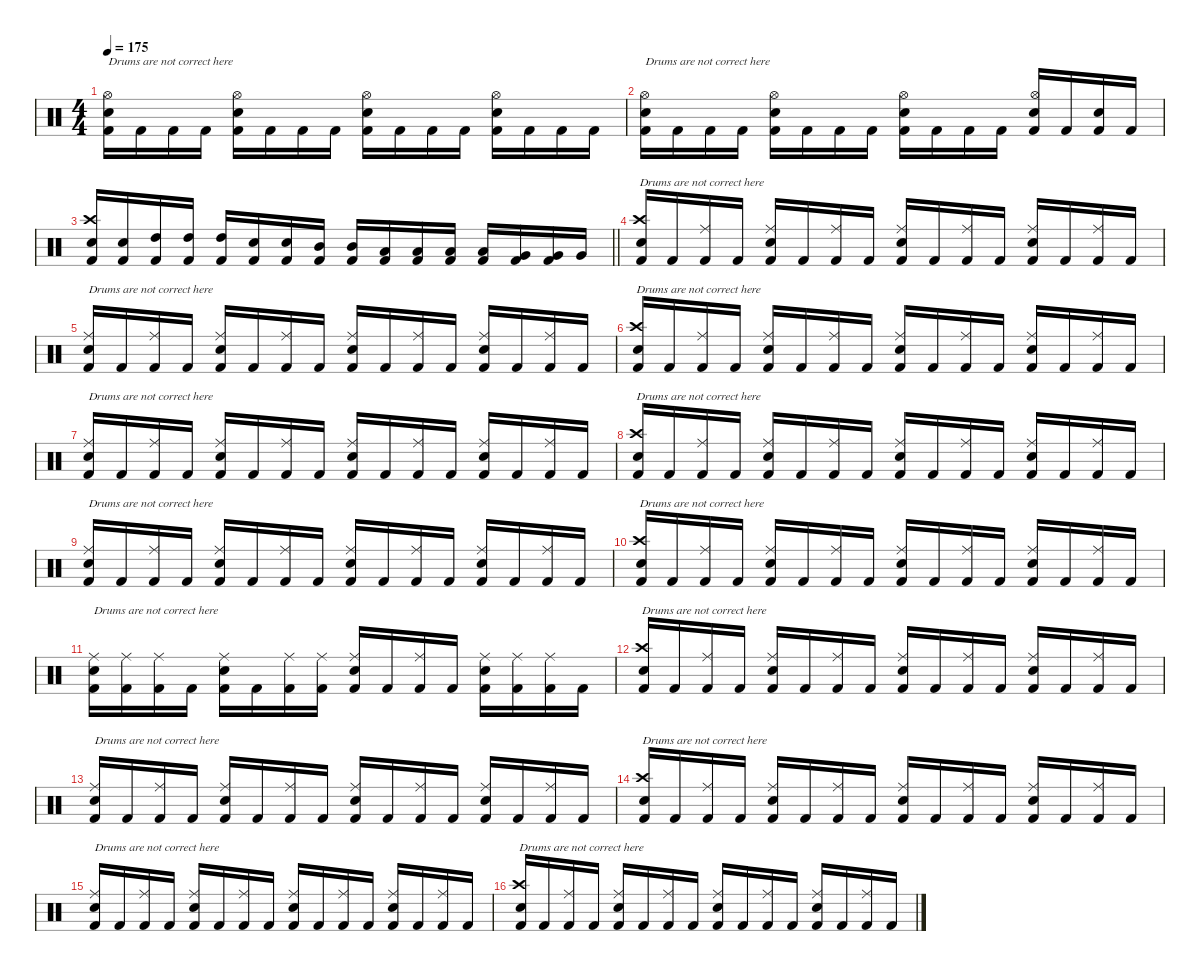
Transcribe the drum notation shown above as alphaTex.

\defaultSystemsLayout 4
\hideDynamics
\bracketExtendMode nobrackets
\singleTrackTrackNamePolicy hidden
\multiTrackTrackNamePolicy hidden
\firstSystemTrackNameMode fullname
\firstSystemTrackNameOrientation horizontal
\otherSystemsTrackNameOrientation horizontal
\track ("Fredrik Andersson" "drm.") {instrument percussion}
\staff {score}
\articulation defaults
\ts (4 4)
\tempo 175
\clef neutral
\ks c
("Hi-Hat (open)" "Snare (hit) 2" "Kick (hit) 2").16{txt "Drums are not correct here" dy f beam Down} "Kick (hit) 2".16{beam Down} "Kick (hit) 2".16{beam Down} "Kick (hit) 2".16{beam Down} ("Hi-Hat (open)" "Snare (hit) 2" "Kick (hit) 2").16{beam Down} "Kick (hit) 2".16{beam Down} "Kick (hit) 2".16{beam Down} "Kick (hit) 2".16{beam Down} ("Hi-Hat (open)" "Snare (hit) 2" "Kick (hit) 2").16{beam Down} "Kick (hit) 2".16{beam Down} "Kick (hit) 2".16{beam Down} "Kick (hit) 2".16{beam Down} ("Hi-Hat (open)" "Snare (hit) 2" "Kick (hit) 2").16{beam Down} "Kick (hit) 2".16{beam Down} "Kick (hit) 2".16{beam Down} "Kick (hit) 2".16{beam Down} |
("Hi-Hat (open)" "Snare (hit) 2" "Kick (hit) 2").16{txt "Drums are not correct here" beam Down} "Kick (hit) 2".16{beam Down} "Kick (hit) 2".16{beam Down} "Kick (hit) 2".16{beam Down} ("Hi-Hat (open)" "Snare (hit) 2" "Kick (hit) 2").16{beam Down} "Kick (hit) 2".16{beam Down} "Kick (hit) 2".16{beam Down} "Kick (hit) 2".16{beam Down} ("Hi-Hat (open)" "Snare (hit) 2" "Kick (hit) 2").16{beam Down} "Kick (hit) 2".16{beam Down} "Kick (hit) 2".16{beam Down} "Kick (hit) 2".16{beam Down} ("Hi-Hat (open)" "Snare (hit) 2" "Kick (hit) 2").16{beam Up} "Kick (hit) 2".16{beam Up} ("Snare (hit) 2" "Kick (hit) 2").16{beam Up} "Kick (hit) 2".16{beam Up} |
\barLineRight lightlight
("Crash high (hit)" "Snare (hit) 2" "Kick (hit) 2").16{beam Up} ("Snare (hit) 2" "Kick (hit) 2").16{beam Up} ("High Tom (hit)" "Kick (hit) 2").16{beam Up} ("High Tom (hit)" "Kick (hit) 2").16{beam Up} ("High Tom (hit)" "Kick (hit) 2").16{beam Up} ("Snare (hit) 2" "Kick (hit) 2").16{beam Up} ("Snare (hit) 2" "Kick (hit) 2").16{beam Up} ("Mid Tom (hit)" "Kick (hit) 2").16{beam Up} ("Mid Tom (hit)" "Kick (hit) 2").16{beam Up} ("Low Tom (hit)" "Kick (hit) 2").16{beam Up} ("Low Tom (hit)" "Kick (hit) 2").16{beam Up} ("Low Tom (hit)" "Kick (hit) 2").16{beam Up} ("Low Tom (hit)" "Kick (hit) 2").16{beam Up} ("Very Low Tom (hit)" "Kick (hit) 2").16{beam Up} ("Very Low Tom (hit)" "Kick (hit) 2").16{beam Up} "Very Low Tom (hit)".16{beam Up} |
("Crash high (hit)" "Snare (hit) 2" "Kick (hit) 2").16{txt "Drums are not correct here" beam Up} "Kick (hit) 2".16{beam Up} ("Ride (middle)" "Kick (hit) 2").16{beam Up} "Kick (hit) 2".16{beam Up} ("Ride (middle)" "Snare (hit) 2" "Kick (hit) 2").16{beam Up} "Kick (hit) 2".16{beam Up} ("Ride (middle)" "Kick (hit) 2").16{beam Up} "Kick (hit) 2".16{beam Up} ("Ride (middle)" "Snare (hit) 2" "Kick (hit) 2").16{beam Up} "Kick (hit) 2".16{beam Up} ("Ride (middle)" "Kick (hit) 2").16{beam Up} "Kick (hit) 2".16{beam Up} ("Ride (middle)" "Snare (hit) 2" "Kick (hit) 2").16{beam Up} "Kick (hit) 2".16{beam Up} ("Ride (middle)" "Kick (hit) 2").16{beam Up} "Kick (hit) 2".16{beam Up} |
("Ride (middle)" "Snare (hit) 2" "Kick (hit) 2").16{txt "Drums are not correct here" beam Up} "Kick (hit) 2".16{beam Up} ("Ride (middle)" "Kick (hit) 2").16{beam Up} "Kick (hit) 2".16{beam Up} ("Ride (middle)" "Snare (hit) 2" "Kick (hit) 2").16{beam Up} "Kick (hit) 2".16{beam Up} ("Ride (middle)" "Kick (hit) 2").16{beam Up} "Kick (hit) 2".16{beam Up} ("Ride (middle)" "Snare (hit) 2" "Kick (hit) 2").16{beam Up} "Kick (hit) 2".16{beam Up} ("Ride (middle)" "Kick (hit) 2").16{beam Up} "Kick (hit) 2".16{beam Up} ("Ride (middle)" "Snare (hit) 2" "Kick (hit) 2").16{beam Up} "Kick (hit) 2".16{beam Up} ("Ride (middle)" "Kick (hit) 2").16{beam Up} "Kick (hit) 2".16{beam Up} |
("Crash high (hit)" "Snare (hit) 2" "Kick (hit) 2").16{txt "Drums are not correct here" beam Up} "Kick (hit) 2".16{beam Up} ("Ride (middle)" "Kick (hit) 2").16{beam Up} "Kick (hit) 2".16{beam Up} ("Ride (middle)" "Snare (hit) 2" "Kick (hit) 2").16{beam Up} "Kick (hit) 2".16{beam Up} ("Ride (middle)" "Kick (hit) 2").16{beam Up} "Kick (hit) 2".16{beam Up} ("Ride (middle)" "Snare (hit) 2" "Kick (hit) 2").16{beam Up} "Kick (hit) 2".16{beam Up} ("Ride (middle)" "Kick (hit) 2").16{beam Up} "Kick (hit) 2".16{beam Up} ("Ride (middle)" "Snare (hit) 2" "Kick (hit) 2").16{beam Up} "Kick (hit) 2".16{beam Up} ("Ride (middle)" "Kick (hit) 2").16{beam Up} "Kick (hit) 2".16{beam Up} |
("Ride (middle)" "Snare (hit) 2" "Kick (hit) 2").16{txt "Drums are not correct here" beam Up} "Kick (hit) 2".16{beam Up} ("Ride (middle)" "Kick (hit) 2").16{beam Up} "Kick (hit) 2".16{beam Up} ("Ride (middle)" "Snare (hit) 2" "Kick (hit) 2").16{beam Up} "Kick (hit) 2".16{beam Up} ("Ride (middle)" "Kick (hit) 2").16{beam Up} "Kick (hit) 2".16{beam Up} ("Ride (middle)" "Snare (hit) 2" "Kick (hit) 2").16{beam Up} "Kick (hit) 2".16{beam Up} ("Ride (middle)" "Kick (hit) 2").16{beam Up} "Kick (hit) 2".16{beam Up} ("Ride (middle)" "Snare (hit) 2" "Kick (hit) 2").16{beam Up} "Kick (hit) 2".16{beam Up} ("Ride (middle)" "Kick (hit) 2").16{beam Up} "Kick (hit) 2".16{beam Up} |
("Crash high (hit)" "Snare (hit) 2" "Kick (hit) 2").16{txt "Drums are not correct here" beam Up} "Kick (hit) 2".16{beam Up} ("Ride (middle)" "Kick (hit) 2").16{beam Up} "Kick (hit) 2".16{beam Up} ("Ride (middle)" "Snare (hit) 2" "Kick (hit) 2").16{beam Up} "Kick (hit) 2".16{beam Up} ("Ride (middle)" "Kick (hit) 2").16{beam Up} "Kick (hit) 2".16{beam Up} ("Ride (middle)" "Snare (hit) 2" "Kick (hit) 2").16{beam Up} "Kick (hit) 2".16{beam Up} ("Ride (middle)" "Kick (hit) 2").16{beam Up} "Kick (hit) 2".16{beam Up} ("Ride (middle)" "Snare (hit) 2" "Kick (hit) 2").16{beam Up} "Kick (hit) 2".16{beam Up} ("Ride (middle)" "Kick (hit) 2").16{beam Up} "Kick (hit) 2".16{beam Up} |
("Ride (middle)" "Snare (hit) 2" "Kick (hit) 2").16{txt "Drums are not correct here" beam Up} "Kick (hit) 2".16{beam Up} ("Ride (middle)" "Kick (hit) 2").16{beam Up} "Kick (hit) 2".16{beam Up} ("Ride (middle)" "Snare (hit) 2" "Kick (hit) 2").16{beam Up} "Kick (hit) 2".16{beam Up} ("Ride (middle)" "Kick (hit) 2").16{beam Up} "Kick (hit) 2".16{beam Up} ("Ride (middle)" "Snare (hit) 2" "Kick (hit) 2").16{beam Up} "Kick (hit) 2".16{beam Up} ("Ride (middle)" "Kick (hit) 2").16{beam Up} "Kick (hit) 2".16{beam Up} ("Ride (middle)" "Snare (hit) 2" "Kick (hit) 2").16{beam Up} "Kick (hit) 2".16{beam Up} ("Ride (middle)" "Kick (hit) 2").16{beam Up} "Kick (hit) 2".16{beam Up} |
("Crash high (hit)" "Snare (hit) 2" "Kick (hit) 2").16{txt "Drums are not correct here" beam Up} "Kick (hit) 2".16{beam Up} ("Ride (middle)" "Kick (hit) 2").16{beam Up} "Kick (hit) 2".16{beam Up} ("Ride (middle)" "Snare (hit) 2" "Kick (hit) 2").16{beam Up} "Kick (hit) 2".16{beam Up} ("Ride (middle)" "Kick (hit) 2").16{beam Up} "Kick (hit) 2".16{beam Up} ("Ride (middle)" "Snare (hit) 2" "Kick (hit) 2").16{beam Up} "Kick (hit) 2".16{beam Up} ("Ride (middle)" "Kick (hit) 2").16{beam Up} "Kick (hit) 2".16{beam Up} ("Ride (middle)" "Snare (hit) 2" "Kick (hit) 2").16{beam Up} "Kick (hit) 2".16{beam Up} ("Ride (middle)" "Kick (hit) 2").16{beam Up} "Kick (hit) 2".16{beam Up} |
("Ride (middle)" "Snare (hit) 2" "Kick (hit) 2").16{txt "Drums are not correct here" beam Down} ("Ride (middle)" "Kick (hit) 2").16{beam Down} ("Ride (middle)" "Kick (hit) 2").16{beam Down} "Kick (hit) 2".16{beam Down} ("Ride (middle)" "Snare (hit) 2" "Kick (hit) 2").16{beam Down} "Kick (hit) 2".16{beam Down} ("Ride (middle)" "Kick (hit) 2").16{beam Down} ("Ride (middle)" "Kick (hit) 2").16{beam Down} ("Ride (middle)" "Snare (hit) 2" "Kick (hit) 2").16{beam Up} "Kick (hit) 2".16{beam Up} ("Ride (middle)" "Kick (hit) 2").16{beam Up} "Kick (hit) 2".16{beam Up} ("Ride (middle)" "Snare (hit) 2" "Kick (hit) 2").16{beam Down} ("Ride (middle)" "Kick (hit) 2").16{beam Down} ("Ride (middle)" "Kick (hit) 2").16{beam Down} "Kick (hit) 2".16{beam Down} |
("Crash high (hit)" "Snare (hit) 2" "Kick (hit) 2").16{txt "Drums are not correct here" beam Up} "Kick (hit) 2".16{beam Up} ("Ride (middle)" "Kick (hit) 2").16{beam Up} "Kick (hit) 2".16{beam Up} ("Ride (middle)" "Snare (hit) 2" "Kick (hit) 2").16{beam Up} "Kick (hit) 2".16{beam Up} ("Ride (middle)" "Kick (hit) 2").16{beam Up} "Kick (hit) 2".16{beam Up} ("Ride (middle)" "Snare (hit) 2" "Kick (hit) 2").16{beam Up} "Kick (hit) 2".16{beam Up} ("Ride (middle)" "Kick (hit) 2").16{beam Up} "Kick (hit) 2".16{beam Up} ("Ride (middle)" "Snare (hit) 2" "Kick (hit) 2").16{beam Up} "Kick (hit) 2".16{beam Up} ("Ride (middle)" "Kick (hit) 2").16{beam Up} "Kick (hit) 2".16{beam Up} |
("Ride (middle)" "Snare (hit) 2" "Kick (hit) 2").16{txt "Drums are not correct here" beam Up} "Kick (hit) 2".16{beam Up} ("Ride (middle)" "Kick (hit) 2").16{beam Up} "Kick (hit) 2".16{beam Up} ("Ride (middle)" "Snare (hit) 2" "Kick (hit) 2").16{beam Up} "Kick (hit) 2".16{beam Up} ("Ride (middle)" "Kick (hit) 2").16{beam Up} "Kick (hit) 2".16{beam Up} ("Ride (middle)" "Snare (hit) 2" "Kick (hit) 2").16{beam Up} "Kick (hit) 2".16{beam Up} ("Ride (middle)" "Kick (hit) 2").16{beam Up} "Kick (hit) 2".16{beam Up} ("Ride (middle)" "Snare (hit) 2" "Kick (hit) 2").16{beam Up} "Kick (hit) 2".16{beam Up} ("Ride (middle)" "Kick (hit) 2").16{beam Up} "Kick (hit) 2".16{beam Up} |
("Crash high (hit)" "Snare (hit) 2" "Kick (hit) 2").16{txt "Drums are not correct here" beam Up} "Kick (hit) 2".16{beam Up} ("Ride (middle)" "Kick (hit) 2").16{beam Up} "Kick (hit) 2".16{beam Up} ("Ride (middle)" "Snare (hit) 2" "Kick (hit) 2").16{beam Up} "Kick (hit) 2".16{beam Up} ("Ride (middle)" "Kick (hit) 2").16{beam Up} "Kick (hit) 2".16{beam Up} ("Ride (middle)" "Snare (hit) 2" "Kick (hit) 2").16{beam Up} "Kick (hit) 2".16{beam Up} ("Ride (middle)" "Kick (hit) 2").16{beam Up} "Kick (hit) 2".16{beam Up} ("Ride (middle)" "Snare (hit) 2" "Kick (hit) 2").16{beam Up} "Kick (hit) 2".16{beam Up} ("Ride (middle)" "Kick (hit) 2").16{beam Up} "Kick (hit) 2".16{beam Up} |
("Ride (middle)" "Snare (hit) 2" "Kick (hit) 2").16{txt "Drums are not correct here" beam Up} "Kick (hit) 2".16{beam Up} ("Ride (middle)" "Kick (hit) 2").16{beam Up} "Kick (hit) 2".16{beam Up} ("Ride (middle)" "Snare (hit) 2" "Kick (hit) 2").16{beam Up} "Kick (hit) 2".16{beam Up} ("Ride (middle)" "Kick (hit) 2").16{beam Up} "Kick (hit) 2".16{beam Up} ("Ride (middle)" "Snare (hit) 2" "Kick (hit) 2").16{beam Up} "Kick (hit) 2".16{beam Up} ("Ride (middle)" "Kick (hit) 2").16{beam Up} "Kick (hit) 2".16{beam Up} ("Ride (middle)" "Snare (hit) 2" "Kick (hit) 2").16{beam Up} "Kick (hit) 2".16{beam Up} ("Ride (middle)" "Kick (hit) 2").16{beam Up} "Kick (hit) 2".16{beam Up} |
("Crash high (hit)" "Snare (hit) 2" "Kick (hit) 2").16{txt "Drums are not correct here" beam Up} "Kick (hit) 2".16{beam Up} ("Ride (middle)" "Kick (hit) 2").16{beam Up} "Kick (hit) 2".16{beam Up} ("Ride (middle)" "Snare (hit) 2" "Kick (hit) 2").16{beam Up} "Kick (hit) 2".16{beam Up} ("Ride (middle)" "Kick (hit) 2").16{beam Up} "Kick (hit) 2".16{beam Up} ("Ride (middle)" "Snare (hit) 2" "Kick (hit) 2").16{beam Up} "Kick (hit) 2".16{beam Up} ("Ride (middle)" "Kick (hit) 2").16{beam Up} "Kick (hit) 2".16{beam Up} ("Ride (middle)" "Snare (hit) 2" "Kick (hit) 2").16{beam Up} "Kick (hit) 2".16{beam Up} ("Ride (middle)" "Kick (hit) 2").16{beam Up} "Kick (hit) 2".16{beam Up}
